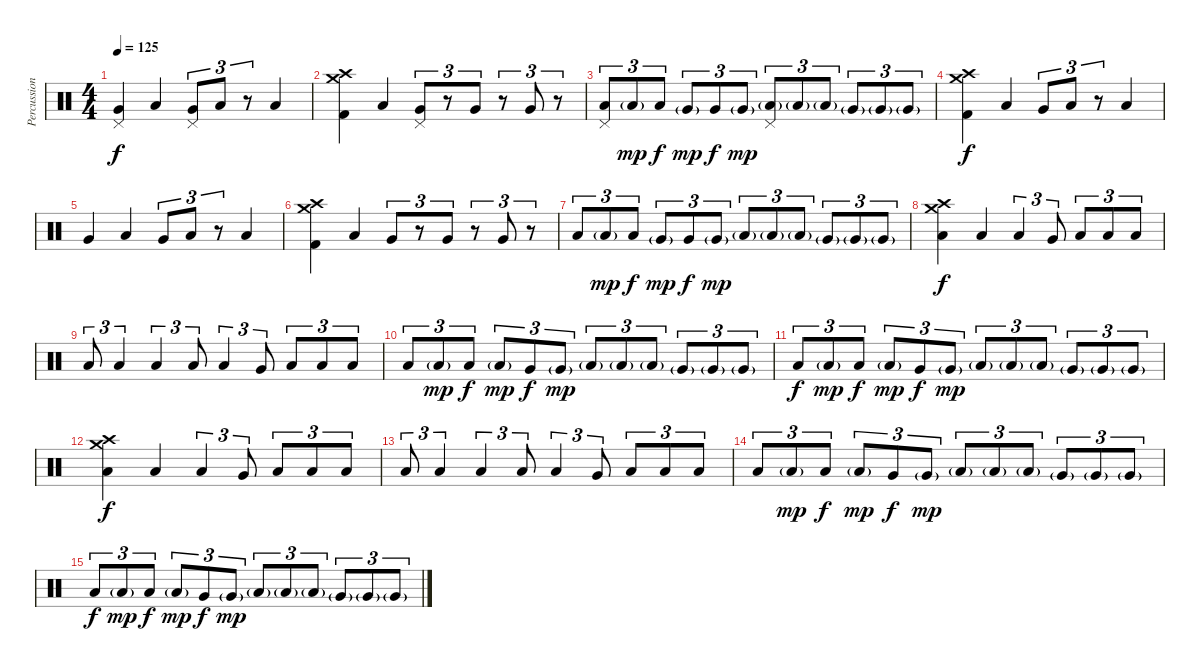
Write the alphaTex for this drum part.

\track ("Percussion" "Percussion") {instrument percussion}
\staff {score}
\articulation defaults
\ts (4 4)
\tempo 125
\clef neutral
\ks c
("Pedal Hi-Hat (hit)" "Very Low Tom (hit)").4{dy f} "Low Floor Tom (hit)".4 ("Pedal Hi-Hat (hit)" "Very Low Tom (hit)").8{tu (3 2)} "Low Floor Tom (hit)".8{tu (3 2)} r.8{tu (3 2)} "Low Floor Tom (hit)".4 |
("Crash medium (hit)" "Crash high (hit)" "Kick (hit) 2").4 "Low Floor Tom (hit)".4 ("Pedal Hi-Hat (hit)" "Very Low Tom (hit)").8{tu (3 2)} r.8{tu (3 2)} "Very Low Tom (hit)".8{tu (3 2)} r.8{tu (3 2)} "Very Low Tom (hit)".8{tu (3 2)} r.8{tu (3 2)} |
("Pedal Hi-Hat (hit)" "Low Floor Tom (hit)").8{tu (3 2)} "Low Floor Tom (hit)"{g}.8{tu (3 2) dy mp} "Low Floor Tom (hit)".8{tu (3 2) dy f} "Very Low Tom (hit)"{g}.8{tu (3 2) dy mp} "Very Low Tom (hit)".8{tu (3 2) dy f} "Very Low Tom (hit)"{g}.8{tu (3 2) dy mp} ("Pedal Hi-Hat (hit)" "Low Tom (hit)"{g}).8{tu (3 2)} "Low Tom (hit)"{g}.8{tu (3 2)} "Low Tom (hit)"{g}.8{tu (3 2)} "Very Low Tom (hit)"{g}.8{tu (3 2)} "Very Low Tom (hit)"{g}.8{tu (3 2)} "Very Low Tom (hit)"{g}.8{tu (3 2)} |
("Crash medium (hit)" "Crash high (hit)" "Kick (hit) 2").4{dy f} "Low Floor Tom (hit)".4 "Very Low Tom (hit)".8{tu (3 2)} "Low Floor Tom (hit)".8{tu (3 2)} r.8{tu (3 2)} "Low Floor Tom (hit)".4 |
"Very Low Tom (hit)".4 "Low Floor Tom (hit)".4 "Very Low Tom (hit)".8{tu (3 2)} "Low Floor Tom (hit)".8{tu (3 2)} r.8{tu (3 2)} "Low Floor Tom (hit)".4 |
("Crash medium (hit)" "Crash high (hit)" "Kick (hit) 2").4 "Low Floor Tom (hit)".4 "Very Low Tom (hit)".8{tu (3 2)} r.8{tu (3 2)} "Very Low Tom (hit)".8{tu (3 2)} r.8{tu (3 2)} "Very Low Tom (hit)".8{tu (3 2)} r.8{tu (3 2)} |
"Low Floor Tom (hit)".8{tu (3 2)} "Low Floor Tom (hit)"{g}.8{tu (3 2) dy mp} "Low Floor Tom (hit)".8{tu (3 2) dy f} "Very Low Tom (hit)"{g}.8{tu (3 2) dy mp} "Very Low Tom (hit)".8{tu (3 2) dy f} "Very Low Tom (hit)"{g}.8{tu (3 2) dy mp} "Low Tom (hit)"{g}.8{tu (3 2)} "Low Tom (hit)"{g}.8{tu (3 2)} "Low Tom (hit)"{g}.8{tu (3 2)} "Very Low Tom (hit)"{g}.8{tu (3 2)} "Very Low Tom (hit)"{g}.8{tu (3 2)} "Very Low Tom (hit)"{g}.8{tu (3 2)} |
("Crash medium (hit)" "Crash high (hit)" "Low Floor Tom (hit)").4{dy f} "Low Floor Tom (hit)".4 "Low Tom (hit)".4{tu (3 2)} "Very Low Tom (hit)".8{tu (3 2)} "Low Floor Tom (hit)".8{tu (3 2)} "Low Floor Tom (hit)".8{tu (3 2)} "Low Floor Tom (hit)".8{tu (3 2)} |
"Low Floor Tom (hit)".8{tu (3 2)} "Low Floor Tom (hit)".4{tu (3 2)} "Low Floor Tom (hit)".4{tu (3 2)} "Low Tom (hit)".8{tu (3 2)} "Low Tom (hit)".4{tu (3 2)} "Very Low Tom (hit)".8{tu (3 2)} "Low Floor Tom (hit)".8{tu (3 2)} "Low Floor Tom (hit)".8{tu (3 2)} "Low Floor Tom (hit)".8{tu (3 2)} |
"Low Tom (hit)".8{tu (3 2)} "Low Tom (hit)"{g}.8{tu (3 2) dy mp} "Low Tom (hit)".8{tu (3 2) dy f} "Low Tom (hit)"{g}.8{tu (3 2) dy mp} "Very Low Tom (hit)".8{tu (3 2) dy f} "Very Low Tom (hit)"{g}.8{tu (3 2) dy mp} "Low Floor Tom (hit)"{g}.8{tu (3 2)} "Low Floor Tom (hit)"{g}.8{tu (3 2)} "Low Floor Tom (hit)"{g}.8{tu (3 2)} "Very Low Tom (hit)"{g}.8{tu (3 2)} "Very Low Tom (hit)"{g}.8{tu (3 2)} "Very Low Tom (hit)"{g}.8{tu (3 2)} |
"Low Tom (hit)".8{tu (3 2) dy f} "Low Tom (hit)"{g}.8{tu (3 2) dy mp} "Low Tom (hit)".8{tu (3 2) dy f} "Low Tom (hit)"{g}.8{tu (3 2) dy mp} "Very Low Tom (hit)".8{tu (3 2) dy f} "Very Low Tom (hit)"{g}.8{tu (3 2) dy mp} "Low Floor Tom (hit)"{g}.8{tu (3 2)} "Low Floor Tom (hit)"{g}.8{tu (3 2)} "Low Floor Tom (hit)"{g}.8{tu (3 2)} "Very Low Tom (hit)"{g}.8{tu (3 2)} "Very Low Tom (hit)"{g}.8{tu (3 2)} "Very Low Tom (hit)"{g}.8{tu (3 2)} |
("Crash medium (hit)" "Crash high (hit)" "Low Floor Tom (hit)").4{dy f} "Low Floor Tom (hit)".4 "Low Tom (hit)".4{tu (3 2)} "Very Low Tom (hit)".8{tu (3 2)} "Low Floor Tom (hit)".8{tu (3 2)} "Low Floor Tom (hit)".8{tu (3 2)} "Low Floor Tom (hit)".8{tu (3 2)} |
"Low Floor Tom (hit)".8{tu (3 2)} "Low Floor Tom (hit)".4{tu (3 2)} "Low Floor Tom (hit)".4{tu (3 2)} "Low Tom (hit)".8{tu (3 2)} "Low Tom (hit)".4{tu (3 2)} "Very Low Tom (hit)".8{tu (3 2)} "Low Floor Tom (hit)".8{tu (3 2)} "Low Floor Tom (hit)".8{tu (3 2)} "Low Floor Tom (hit)".8{tu (3 2)} |
"Low Tom (hit)".8{tu (3 2)} "Low Tom (hit)"{g}.8{tu (3 2) dy mp} "Low Tom (hit)".8{tu (3 2) dy f} "Low Tom (hit)"{g}.8{tu (3 2) dy mp} "Very Low Tom (hit)".8{tu (3 2) dy f} "Very Low Tom (hit)"{g}.8{tu (3 2) dy mp} "Low Floor Tom (hit)"{g}.8{tu (3 2)} "Low Floor Tom (hit)"{g}.8{tu (3 2)} "Low Floor Tom (hit)"{g}.8{tu (3 2)} "Very Low Tom (hit)"{g}.8{tu (3 2)} "Very Low Tom (hit)"{g}.8{tu (3 2)} "Very Low Tom (hit)"{g}.8{tu (3 2)} |
"Low Tom (hit)".8{tu (3 2) dy f} "Low Tom (hit)"{g}.8{tu (3 2) dy mp} "Low Tom (hit)".8{tu (3 2) dy f} "Low Tom (hit)"{g}.8{tu (3 2) dy mp} "Very Low Tom (hit)".8{tu (3 2) dy f} "Very Low Tom (hit)"{g}.8{tu (3 2) dy mp} "Low Floor Tom (hit)"{g}.8{tu (3 2)} "Low Floor Tom (hit)"{g}.8{tu (3 2)} "Low Floor Tom (hit)"{g}.8{tu (3 2)} "Very Low Tom (hit)"{g}.8{tu (3 2)} "Very Low Tom (hit)"{g}.8{tu (3 2)} "Very Low Tom (hit)"{g}.8{tu (3 2)}
